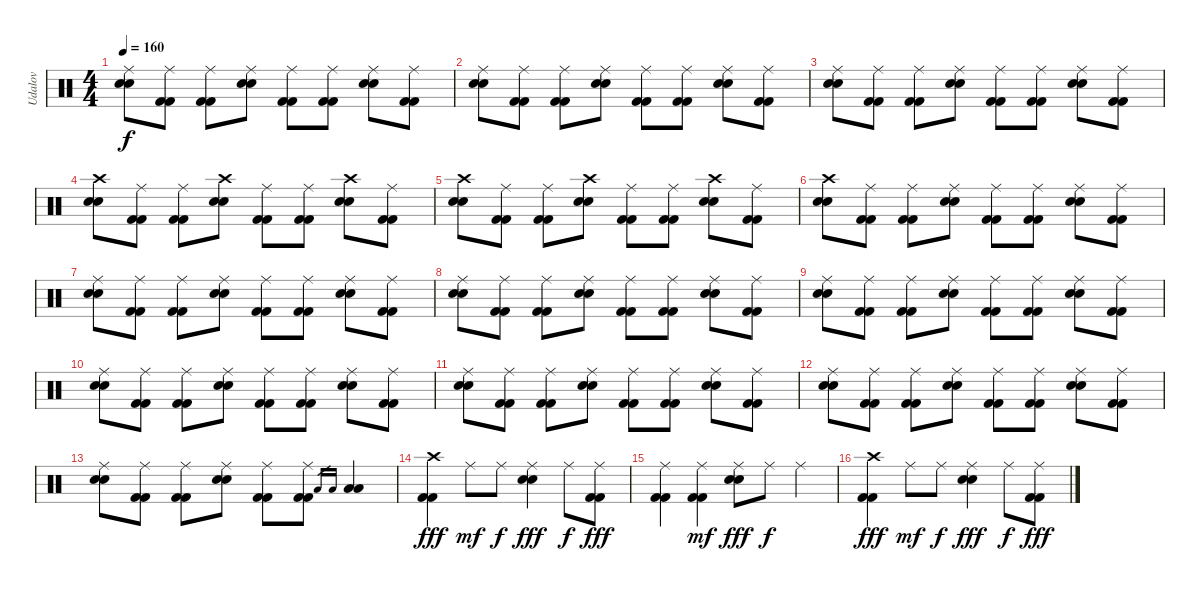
\track ("Udalov" "Udalov") {instrument percussion}
\staff {score}
\articulation defaults
\ts (4 4)
\tempo 160
\clef neutral
\ks c
("Ride (middle)" "Electric Snare (hit)" "Electric Snare (hit)").8{dy f} ("Ride (middle)" "Kick (hit) 2" "Kick (hit) 2").8 ("Ride (middle)" "Kick (hit) 2" "Kick (hit) 2").8 ("Ride (middle)" "Electric Snare (hit)" "Electric Snare (hit)").8 ("Ride (middle)" "Kick (hit) 2" "Kick (hit) 2").8 ("Ride (middle)" "Kick (hit) 2" "Kick (hit) 2").8 ("Ride (middle)" "Electric Snare (hit)" "Electric Snare (hit)").8 ("Ride (middle)" "Kick (hit) 2" "Kick (hit) 2").8 |
("Ride (middle)" "Electric Snare (hit)" "Electric Snare (hit)").8 ("Ride (middle)" "Kick (hit) 2" "Kick (hit) 2").8 ("Ride (middle)" "Kick (hit) 2" "Kick (hit) 2").8 ("Ride (middle)" "Electric Snare (hit)" "Electric Snare (hit)").8 ("Ride (middle)" "Kick (hit) 2" "Kick (hit) 2").8 ("Ride (middle)" "Kick (hit) 2" "Kick (hit) 2").8 ("Ride (middle)" "Electric Snare (hit)" "Electric Snare (hit)").8 ("Ride (middle)" "Kick (hit) 2" "Kick (hit) 2").8 |
("Ride (middle)" "Electric Snare (hit)" "Electric Snare (hit)").8 ("Ride (middle)" "Kick (hit) 2" "Kick (hit) 2").8 ("Ride (middle)" "Kick (hit) 2" "Kick (hit) 2").8 ("Ride (middle)" "Electric Snare (hit)" "Electric Snare (hit)").8 ("Ride (middle)" "Kick (hit) 2" "Kick (hit) 2").8 ("Ride (middle)" "Kick (hit) 2" "Kick (hit) 2").8 ("Ride (middle)" "Electric Snare (hit)" "Electric Snare (hit)").8 ("Ride (middle)" "Kick (hit) 2" "Kick (hit) 2").8 |
("Crash high (hit)" "Electric Snare (hit)" "Electric Snare (hit)").8 ("Ride (middle)" "Kick (hit) 2" "Kick (hit) 2").8 ("Ride (middle)" "Kick (hit) 2" "Kick (hit) 2").8 ("Crash high (hit)" "Electric Snare (hit)" "Electric Snare (hit)").8 ("Ride (middle)" "Kick (hit) 2" "Kick (hit) 2").8 ("Ride (middle)" "Kick (hit) 2" "Kick (hit) 2").8 ("Crash high (hit)" "Electric Snare (hit)" "Electric Snare (hit)").8 ("Ride (middle)" "Kick (hit) 2" "Kick (hit) 2").8 |
("Crash high (hit)" "Electric Snare (hit)" "Electric Snare (hit)").8 ("Ride (middle)" "Kick (hit) 2" "Kick (hit) 2").8 ("Ride (middle)" "Kick (hit) 2" "Kick (hit) 2").8 ("Crash high (hit)" "Electric Snare (hit)" "Electric Snare (hit)").8 ("Ride (middle)" "Kick (hit) 2" "Kick (hit) 2").8 ("Ride (middle)" "Kick (hit) 2" "Kick (hit) 2").8 ("Crash high (hit)" "Electric Snare (hit)" "Electric Snare (hit)").8 ("Ride (middle)" "Kick (hit) 2" "Kick (hit) 2").8 |
("Crash high (hit)" "Electric Snare (hit)" "Electric Snare (hit)").8 ("Ride (middle)" "Kick (hit) 2" "Kick (hit) 2").8 ("Ride (middle)" "Kick (hit) 2" "Kick (hit) 2").8 ("Ride (middle)" "Electric Snare (hit)" "Electric Snare (hit)").8 ("Ride (middle)" "Kick (hit) 2" "Kick (hit) 2").8 ("Ride (middle)" "Kick (hit) 2" "Kick (hit) 2").8 ("Ride (middle)" "Electric Snare (hit)" "Electric Snare (hit)").8 ("Ride (middle)" "Kick (hit) 2" "Kick (hit) 2").8 |
("Ride (middle)" "Electric Snare (hit)" "Electric Snare (hit)").8 ("Ride (middle)" "Kick (hit) 2" "Kick (hit) 2").8 ("Ride (middle)" "Kick (hit) 2" "Kick (hit) 2").8 ("Ride (middle)" "Electric Snare (hit)" "Electric Snare (hit)").8 ("Ride (middle)" "Kick (hit) 2" "Kick (hit) 2").8 ("Ride (middle)" "Kick (hit) 2" "Kick (hit) 2").8 ("Ride (middle)" "Electric Snare (hit)" "Electric Snare (hit)").8 ("Ride (middle)" "Kick (hit) 2" "Kick (hit) 2").8 |
("Ride (middle)" "Electric Snare (hit)" "Electric Snare (hit)").8 ("Ride (middle)" "Kick (hit) 2" "Kick (hit) 2").8 ("Ride (middle)" "Kick (hit) 2" "Kick (hit) 2").8 ("Ride (middle)" "Electric Snare (hit)" "Electric Snare (hit)").8 ("Ride (middle)" "Kick (hit) 2" "Kick (hit) 2").8 ("Ride (middle)" "Kick (hit) 2" "Kick (hit) 2").8 ("Ride (middle)" "Electric Snare (hit)" "Electric Snare (hit)").8 ("Ride (middle)" "Kick (hit) 2" "Kick (hit) 2").8 |
("Ride (middle)" "Electric Snare (hit)" "Electric Snare (hit)").8 ("Ride (middle)" "Kick (hit) 2" "Kick (hit) 2").8 ("Ride (middle)" "Kick (hit) 2" "Kick (hit) 2").8 ("Ride (middle)" "Electric Snare (hit)" "Electric Snare (hit)").8 ("Ride (middle)" "Kick (hit) 2" "Kick (hit) 2").8 ("Ride (middle)" "Kick (hit) 2" "Kick (hit) 2").8 ("Ride (middle)" "Electric Snare (hit)" "Electric Snare (hit)").8 ("Ride (middle)" "Kick (hit) 2" "Kick (hit) 2").8 |
("Ride (middle)" "Electric Snare (hit)" "Electric Snare (hit)").8 ("Ride (middle)" "Kick (hit) 2" "Kick (hit) 2").8 ("Ride (middle)" "Kick (hit) 2" "Kick (hit) 2").8 ("Ride (middle)" "Electric Snare (hit)" "Electric Snare (hit)").8 ("Ride (middle)" "Kick (hit) 2" "Kick (hit) 2").8 ("Ride (middle)" "Kick (hit) 2" "Kick (hit) 2").8 ("Ride (middle)" "Electric Snare (hit)" "Electric Snare (hit)").8 ("Ride (middle)" "Kick (hit) 2" "Kick (hit) 2").8 |
("Ride (middle)" "Electric Snare (hit)" "Electric Snare (hit)").8 ("Ride (middle)" "Kick (hit) 2" "Kick (hit) 2").8 ("Ride (middle)" "Kick (hit) 2" "Kick (hit) 2").8 ("Ride (middle)" "Electric Snare (hit)" "Electric Snare (hit)").8 ("Ride (middle)" "Kick (hit) 2" "Kick (hit) 2").8 ("Ride (middle)" "Kick (hit) 2" "Kick (hit) 2").8 ("Ride (middle)" "Electric Snare (hit)" "Electric Snare (hit)").8 ("Ride (middle)" "Kick (hit) 2" "Kick (hit) 2").8 |
("Ride (middle)" "Electric Snare (hit)" "Electric Snare (hit)").8 ("Ride (middle)" "Kick (hit) 2" "Kick (hit) 2").8 ("Ride (middle)" "Kick (hit) 2" "Kick (hit) 2").8 ("Ride (middle)" "Electric Snare (hit)" "Electric Snare (hit)").8 ("Ride (middle)" "Kick (hit) 2" "Kick (hit) 2").8 ("Ride (middle)" "Kick (hit) 2" "Kick (hit) 2").8 ("Ride (middle)" "Electric Snare (hit)" "Electric Snare (hit)").8 ("Ride (middle)" "Kick (hit) 2" "Kick (hit) 2").8 |
("Ride (middle)" "Electric Snare (hit)" "Electric Snare (hit)").8 ("Ride (middle)" "Kick (hit) 2" "Kick (hit) 2").8 ("Ride (middle)" "Kick (hit) 2" "Kick (hit) 2").8 ("Ride (middle)" "Electric Snare (hit)" "Electric Snare (hit)").8 ("Ride (middle)" "Kick (hit) 2" "Kick (hit) 2").8 ("Ride (middle)" "Kick (hit) 2" "Kick (hit) 2").8 "Low Tom (hit)".16{gr} "Low Tom (hit)".16{gr} ("Low Tom (hit)" "Low Tom (hit)").4 |
("Crash high (hit)" "Kick (hit) 2" "Kick (hit) 2").4{dy fff} "Ride (middle)".8{dy mf} "Ride (middle)".8{dy f} ("Ride (middle)" "Electric Snare (hit)" "Electric Snare (hit)").4{dy fff} "Ride (middle)".8{dy f} ("Ride (middle)" "Kick (hit) 2" "Kick (hit) 2").8{dy fff} |
("Ride (middle)" "Kick (hit) 2" "Kick (hit) 2").4 ("Ride (middle)" "Kick (hit) 2" "Kick (hit) 2").4{dy mf} ("Ride (middle)" "Electric Snare (hit)" "Electric Snare (hit)").8{dy fff} "Ride (middle)".8{dy f} "Ride (middle)".4 |
("Crash high (hit)" "Kick (hit) 2" "Kick (hit) 2").4{dy fff} "Ride (middle)".8{dy mf} "Ride (middle)".8{dy f} ("Ride (middle)" "Electric Snare (hit)" "Electric Snare (hit)").4{dy fff} "Ride (middle)".8{dy f} ("Ride (middle)" "Kick (hit) 2" "Kick (hit) 2").8{dy fff}
